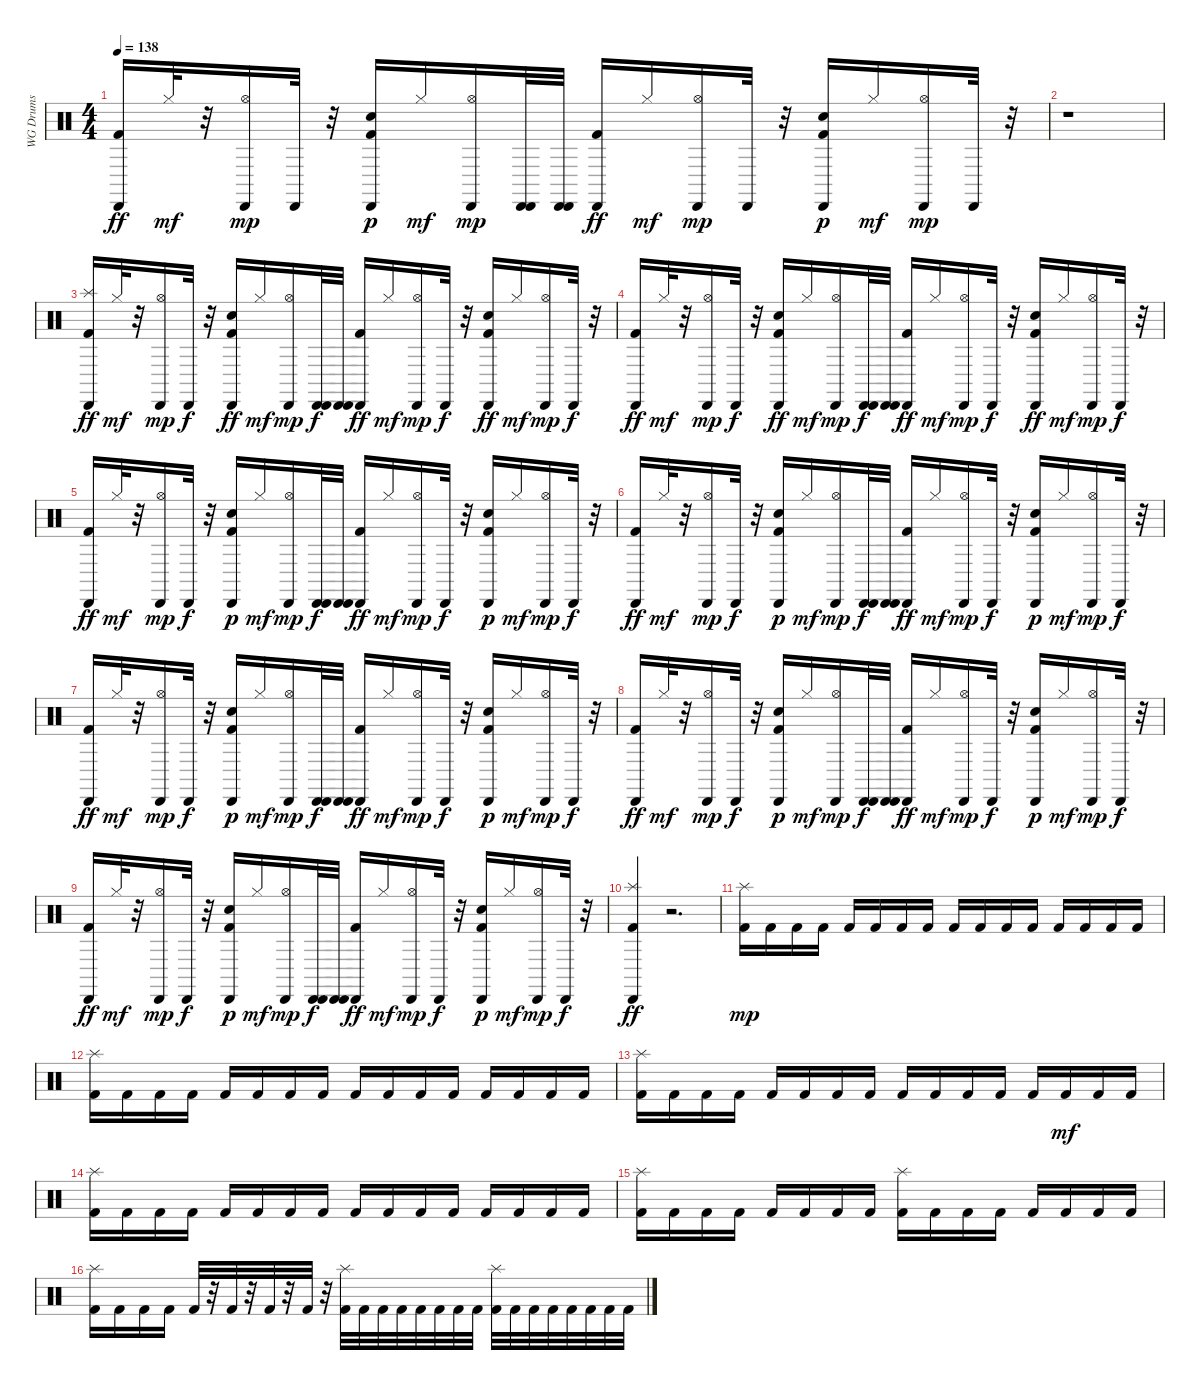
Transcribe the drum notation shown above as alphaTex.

\track ("WG Drums" "WG Drums") {instrument percussion}
\staff {score}
\articulation defaults
\ts (4 4)
\tempo 138
\clef neutral
\ks c
("Cabasa (hit)" "Kick (hit) 2").16{dy ff} "Hi-Hat (closed)".32{dy mf} r.32 ("Cabasa (hit)" "Hi-Hat (open)").16{dy mp} "Cabasa (hit)".32 r.32 ("Cabasa (hit)" "Kick (hit) 2" "Hand Clap (hit)").16{dy p} "Hi-Hat (closed)".16{dy mf} ("Cabasa (hit)" "Hi-Hat (open)").16{dy mp} ("Cabasa (hit)" "Cabasa (hit)").32 ("Cabasa (hit)" "Cabasa (hit)").32 ("Cabasa (hit)" "Kick (hit) 2").16{dy ff} "Hi-Hat (closed)".16{dy mf} ("Cabasa (hit)" "Hi-Hat (open)").16{dy mp} "Cabasa (hit)".32 r.32 ("Cabasa (hit)" "Kick (hit) 2" "Hand Clap (hit)").16{dy p} "Hi-Hat (closed)".16{dy mf} ("Cabasa (hit)" "Hi-Hat (open)").16{dy mp} "Cabasa (hit)".32 r.32 |
r.1 |
("Splash (hit)" "Cabasa (hit)" "Kick (hit) 2").16{dy ff} "Hi-Hat (closed)".32{dy mf} r.32 ("Cabasa (hit)" "Hi-Hat (open)").16{dy mp} "Cabasa (hit)".32{dy f} r.32 ("Hand Clap (hit)" "Cabasa (hit)" "Kick (hit) 2").16{dy ff} "Hi-Hat (closed)".16{dy mf} ("Cabasa (hit)" "Hi-Hat (open)").16{dy mp} ("Cabasa (hit)" "Cabasa (hit)").32{dy f} ("Cabasa (hit)" "Cabasa (hit)").32 ("Cabasa (hit)" "Kick (hit) 2").16{dy ff} "Hi-Hat (closed)".16{dy mf} ("Cabasa (hit)" "Hi-Hat (open)").16{dy mp} "Cabasa (hit)".32{dy f} r.32 ("Hand Clap (hit)" "Cabasa (hit)" "Kick (hit) 2").16{dy ff} "Hi-Hat (closed)".16{dy mf} ("Cabasa (hit)" "Hi-Hat (open)").16{dy mp} "Cabasa (hit)".32{dy f} r.32 |
("Cabasa (hit)" "Kick (hit) 2").16{dy ff} "Hi-Hat (closed)".32{dy mf} r.32 ("Cabasa (hit)" "Hi-Hat (open)").16{dy mp} "Cabasa (hit)".32{dy f} r.32 ("Hand Clap (hit)" "Cabasa (hit)" "Kick (hit) 2").16{dy ff} "Hi-Hat (closed)".16{dy mf} ("Cabasa (hit)" "Hi-Hat (open)").16{dy mp} ("Cabasa (hit)" "Cabasa (hit)").32{dy f} ("Cabasa (hit)" "Cabasa (hit)").32 ("Cabasa (hit)" "Kick (hit) 2").16{dy ff} "Hi-Hat (closed)".16{dy mf} ("Cabasa (hit)" "Hi-Hat (open)").16{dy mp} "Cabasa (hit)".32{dy f} r.32 ("Hand Clap (hit)" "Cabasa (hit)" "Kick (hit) 2").16{dy ff} "Hi-Hat (closed)".16{dy mf} ("Cabasa (hit)" "Hi-Hat (open)").16{dy mp} "Cabasa (hit)".32{dy f} r.32 |
("Cabasa (hit)" "Kick (hit) 2").16{dy ff} "Hi-Hat (closed)".32{dy mf} r.32 ("Cabasa (hit)" "Hi-Hat (open)").16{dy mp} "Cabasa (hit)".32{dy f} r.32 ("Cabasa (hit)" "Kick (hit) 2" "Hand Clap (hit)").16{dy p} "Hi-Hat (closed)".16{dy mf} ("Cabasa (hit)" "Hi-Hat (open)").16{dy mp} ("Cabasa (hit)" "Cabasa (hit)").32{dy f} ("Cabasa (hit)" "Cabasa (hit)").32 ("Cabasa (hit)" "Kick (hit) 2").16{dy ff} "Hi-Hat (closed)".16{dy mf} ("Cabasa (hit)" "Hi-Hat (open)").16{dy mp} "Cabasa (hit)".32{dy f} r.32 ("Cabasa (hit)" "Kick (hit) 2" "Hand Clap (hit)").16{dy p} "Hi-Hat (closed)".16{dy mf} ("Cabasa (hit)" "Hi-Hat (open)").16{dy mp} "Cabasa (hit)".32{dy f} r.32 |
("Cabasa (hit)" "Kick (hit) 2").16{dy ff} "Hi-Hat (closed)".32{dy mf} r.32 ("Cabasa (hit)" "Hi-Hat (open)").16{dy mp} "Cabasa (hit)".32{dy f} r.32 ("Cabasa (hit)" "Kick (hit) 2" "Hand Clap (hit)").16{dy p} "Hi-Hat (closed)".16{dy mf} ("Cabasa (hit)" "Hi-Hat (open)").16{dy mp} ("Cabasa (hit)" "Cabasa (hit)").32{dy f} ("Cabasa (hit)" "Cabasa (hit)").32 ("Cabasa (hit)" "Kick (hit) 2").16{dy ff} "Hi-Hat (closed)".16{dy mf} ("Cabasa (hit)" "Hi-Hat (open)").16{dy mp} "Cabasa (hit)".32{dy f} r.32 ("Cabasa (hit)" "Kick (hit) 2" "Hand Clap (hit)").16{dy p} "Hi-Hat (closed)".16{dy mf} ("Cabasa (hit)" "Hi-Hat (open)").16{dy mp} "Cabasa (hit)".32{dy f} r.32 |
("Cabasa (hit)" "Kick (hit) 2").16{dy ff} "Hi-Hat (closed)".32{dy mf} r.32 ("Cabasa (hit)" "Hi-Hat (open)").16{dy mp} "Cabasa (hit)".32{dy f} r.32 ("Cabasa (hit)" "Kick (hit) 2" "Hand Clap (hit)").16{dy p} "Hi-Hat (closed)".16{dy mf} ("Cabasa (hit)" "Hi-Hat (open)").16{dy mp} ("Cabasa (hit)" "Cabasa (hit)").32{dy f} ("Cabasa (hit)" "Cabasa (hit)").32 ("Cabasa (hit)" "Kick (hit) 2").16{dy ff} "Hi-Hat (closed)".16{dy mf} ("Cabasa (hit)" "Hi-Hat (open)").16{dy mp} "Cabasa (hit)".32{dy f} r.32 ("Cabasa (hit)" "Kick (hit) 2" "Hand Clap (hit)").16{dy p} "Hi-Hat (closed)".16{dy mf} ("Cabasa (hit)" "Hi-Hat (open)").16{dy mp} "Cabasa (hit)".32{dy f} r.32 |
("Cabasa (hit)" "Kick (hit) 2").16{dy ff} "Hi-Hat (closed)".32{dy mf} r.32 ("Cabasa (hit)" "Hi-Hat (open)").16{dy mp} "Cabasa (hit)".32{dy f} r.32 ("Cabasa (hit)" "Kick (hit) 2" "Hand Clap (hit)").16{dy p} "Hi-Hat (closed)".16{dy mf} ("Cabasa (hit)" "Hi-Hat (open)").16{dy mp} ("Cabasa (hit)" "Cabasa (hit)").32{dy f} ("Cabasa (hit)" "Cabasa (hit)").32 ("Cabasa (hit)" "Kick (hit) 2").16{dy ff} "Hi-Hat (closed)".16{dy mf} ("Cabasa (hit)" "Hi-Hat (open)").16{dy mp} "Cabasa (hit)".32{dy f} r.32 ("Cabasa (hit)" "Kick (hit) 2" "Hand Clap (hit)").16{dy p} "Hi-Hat (closed)".16{dy mf} ("Cabasa (hit)" "Hi-Hat (open)").16{dy mp} "Cabasa (hit)".32{dy f} r.32 |
("Cabasa (hit)" "Kick (hit) 2").16{dy ff} "Hi-Hat (closed)".32{dy mf} r.32 ("Cabasa (hit)" "Hi-Hat (open)").16{dy mp} "Cabasa (hit)".32{dy f} r.32 ("Cabasa (hit)" "Kick (hit) 2" "Hand Clap (hit)").16{dy p} "Hi-Hat (closed)".16{dy mf} ("Cabasa (hit)" "Hi-Hat (open)").16{dy mp} ("Cabasa (hit)" "Cabasa (hit)").32{dy f} ("Cabasa (hit)" "Cabasa (hit)").32 ("Cabasa (hit)" "Kick (hit) 2").16{dy ff} "Hi-Hat (closed)".16{dy mf} ("Cabasa (hit)" "Hi-Hat (open)").16{dy mp} "Cabasa (hit)".32{dy f} r.32 ("Cabasa (hit)" "Kick (hit) 2" "Hand Clap (hit)").16{dy p} "Hi-Hat (closed)".16{dy mf} ("Cabasa (hit)" "Hi-Hat (open)").16{dy mp} "Cabasa (hit)".32{dy f} r.32 |
("Splash (hit)" "Cabasa (hit)" "Kick (hit) 2").4{dy ff} r.2{d} |
("Splash (hit)" "Kick (hit) 2").16{dy mp} "Kick (hit) 2".16 "Kick (hit) 2".16 "Kick (hit) 2".16 "Kick (hit) 2".16 "Kick (hit) 2".16 "Kick (hit) 2".16 "Kick (hit) 2".16 "Kick (hit) 2".16 "Kick (hit) 2".16 "Kick (hit) 2".16 "Kick (hit) 2".16 "Kick (hit) 2".16 "Kick (hit) 2".16 "Kick (hit) 2".16 "Kick (hit) 2".16 |
("Splash (hit)" "Kick (hit) 2").16 "Kick (hit) 2".16 "Kick (hit) 2".16 "Kick (hit) 2".16 "Kick (hit) 2".16 "Kick (hit) 2".16 "Kick (hit) 2".16 "Kick (hit) 2".16 "Kick (hit) 2".16 "Kick (hit) 2".16 "Kick (hit) 2".16 "Kick (hit) 2".16 "Kick (hit) 2".16 "Kick (hit) 2".16 "Kick (hit) 2".16 "Kick (hit) 2".16 |
("Splash (hit)" "Kick (hit) 2").16 "Kick (hit) 2".16 "Kick (hit) 2".16 "Kick (hit) 2".16 "Kick (hit) 2".16 "Kick (hit) 2".16 "Kick (hit) 2".16 "Kick (hit) 2".16 "Kick (hit) 2".16 "Kick (hit) 2".16 "Kick (hit) 2".16 "Kick (hit) 2".16 "Kick (hit) 2".16 "Kick (hit) 2".16{dy mf} "Kick (hit) 2".16 "Kick (hit) 2".16 |
("Splash (hit)" "Kick (hit) 2").16 "Kick (hit) 2".16 "Kick (hit) 2".16 "Kick (hit) 2".16 "Kick (hit) 2".16 "Kick (hit) 2".16 "Kick (hit) 2".16 "Kick (hit) 2".16 "Kick (hit) 2".16 "Kick (hit) 2".16 "Kick (hit) 2".16 "Kick (hit) 2".16 "Kick (hit) 2".16 "Kick (hit) 2".16 "Kick (hit) 2".16 "Kick (hit) 2".16 |
("Splash (hit)" "Kick (hit) 2").16 "Kick (hit) 2".16 "Kick (hit) 2".16 "Kick (hit) 2".16 "Kick (hit) 2".16 "Kick (hit) 2".16 "Kick (hit) 2".16 "Kick (hit) 2".16 ("Splash (hit)" "Kick (hit) 2").16 "Kick (hit) 2".16 "Kick (hit) 2".16 "Kick (hit) 2".16 "Kick (hit) 2".16 "Kick (hit) 2".16 "Kick (hit) 2".16 "Kick (hit) 2".16 |
("Splash (hit)" "Kick (hit) 2").16 "Kick (hit) 2".16 "Kick (hit) 2".16 "Kick (hit) 2".16 "Kick (hit) 2".32 r.32 "Kick (hit) 2".32 r.32 "Kick (hit) 2".32 r.32 "Kick (hit) 2".32 r.32 ("Splash (hit)" "Kick (hit) 2").32 "Kick (hit) 2".32 "Kick (hit) 2".32 "Kick (hit) 2".32 "Kick (hit) 2".32 "Kick (hit) 2".32 "Kick (hit) 2".32 "Kick (hit) 2".32 ("Splash (hit)" "Kick (hit) 2").32 "Kick (hit) 2".32 "Kick (hit) 2".32 "Kick (hit) 2".32 "Kick (hit) 2".32 "Kick (hit) 2".32 "Kick (hit) 2".32 "Kick (hit) 2".32
